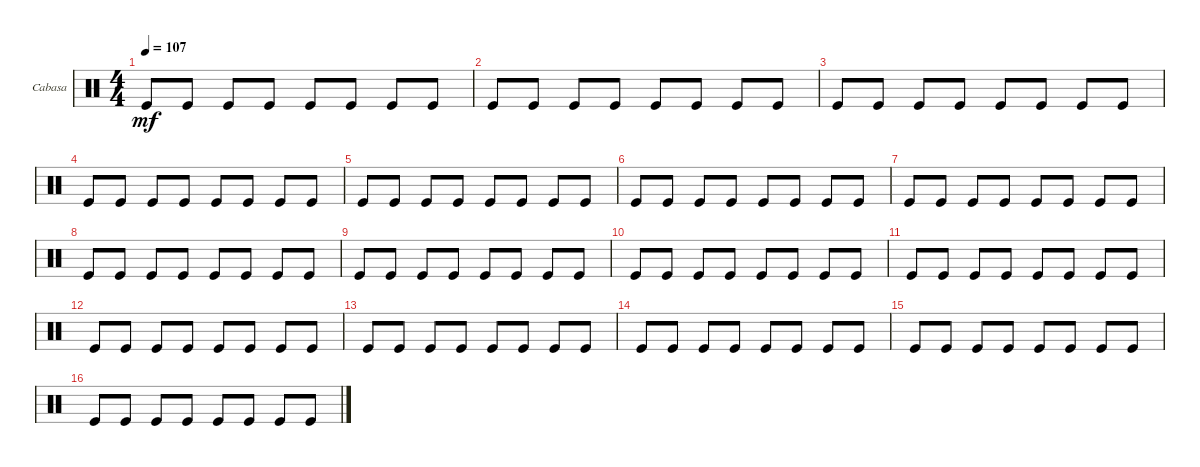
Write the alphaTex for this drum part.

\defaultSystemsLayout 4
\bracketExtendMode groupsimilarinstruments
\firstSystemTrackNameOrientation horizontal
\otherSystemsTrackNameOrientation horizontal
\track ("Cabasa" "Cabasa") {instrument percussion}
\staff {score}
\articulation defaults
\ts (4 4)
\tempo 107
\clef neutral
\ks c "Kick (hit)".8{dy mf} "Kick (hit)".8 "Kick (hit)".8 "Kick (hit)".8 "Kick (hit)".8 "Kick (hit)".8 "Kick (hit)".8 "Kick (hit)".8
|
"Kick (hit)".8 "Kick (hit)".8 "Kick (hit)".8 "Kick (hit)".8 "Kick (hit)".8 "Kick (hit)".8 "Kick (hit)".8 "Kick (hit)".8 |
"Kick (hit)".8 "Kick (hit)".8 "Kick (hit)".8 "Kick (hit)".8 "Kick (hit)".8 "Kick (hit)".8 "Kick (hit)".8 "Kick (hit)".8 |
"Kick (hit)".8 "Kick (hit)".8 "Kick (hit)".8 "Kick (hit)".8 "Kick (hit)".8 "Kick (hit)".8 "Kick (hit)".8 "Kick (hit)".8 |
"Kick (hit)".8 "Kick (hit)".8 "Kick (hit)".8 "Kick (hit)".8 "Kick (hit)".8 "Kick (hit)".8 "Kick (hit)".8 "Kick (hit)".8 |
"Kick (hit)".8 "Kick (hit)".8 "Kick (hit)".8 "Kick (hit)".8 "Kick (hit)".8 "Kick (hit)".8 "Kick (hit)".8 "Kick (hit)".8 |
"Kick (hit)".8 "Kick (hit)".8 "Kick (hit)".8 "Kick (hit)".8 "Kick (hit)".8 "Kick (hit)".8 "Kick (hit)".8 "Kick (hit)".8 |
"Kick (hit)".8 "Kick (hit)".8 "Kick (hit)".8 "Kick (hit)".8 "Kick (hit)".8 "Kick (hit)".8 "Kick (hit)".8 "Kick (hit)".8 |
"Kick (hit)".8 "Kick (hit)".8 "Kick (hit)".8 "Kick (hit)".8 "Kick (hit)".8 "Kick (hit)".8 "Kick (hit)".8 "Kick (hit)".8 |
"Kick (hit)".8 "Kick (hit)".8 "Kick (hit)".8 "Kick (hit)".8 "Kick (hit)".8 "Kick (hit)".8 "Kick (hit)".8 "Kick (hit)".8 |
"Kick (hit)".8 "Kick (hit)".8 "Kick (hit)".8 "Kick (hit)".8 "Kick (hit)".8 "Kick (hit)".8 "Kick (hit)".8 "Kick (hit)".8 |
"Kick (hit)".8 "Kick (hit)".8 "Kick (hit)".8 "Kick (hit)".8 "Kick (hit)".8 "Kick (hit)".8 "Kick (hit)".8 "Kick (hit)".8 |
"Kick (hit)".8 "Kick (hit)".8 "Kick (hit)".8 "Kick (hit)".8 "Kick (hit)".8 "Kick (hit)".8 "Kick (hit)".8 "Kick (hit)".8 |
"Kick (hit)".8 "Kick (hit)".8 "Kick (hit)".8 "Kick (hit)".8 "Kick (hit)".8 "Kick (hit)".8 "Kick (hit)".8 "Kick (hit)".8 |
"Kick (hit)".8 "Kick (hit)".8 "Kick (hit)".8 "Kick (hit)".8 "Kick (hit)".8 "Kick (hit)".8 "Kick (hit)".8 "Kick (hit)".8 |
"Kick (hit)".8 "Kick (hit)".8 "Kick (hit)".8 "Kick (hit)".8 "Kick (hit)".8 "Kick (hit)".8 "Kick (hit)".8 "Kick (hit)".8
